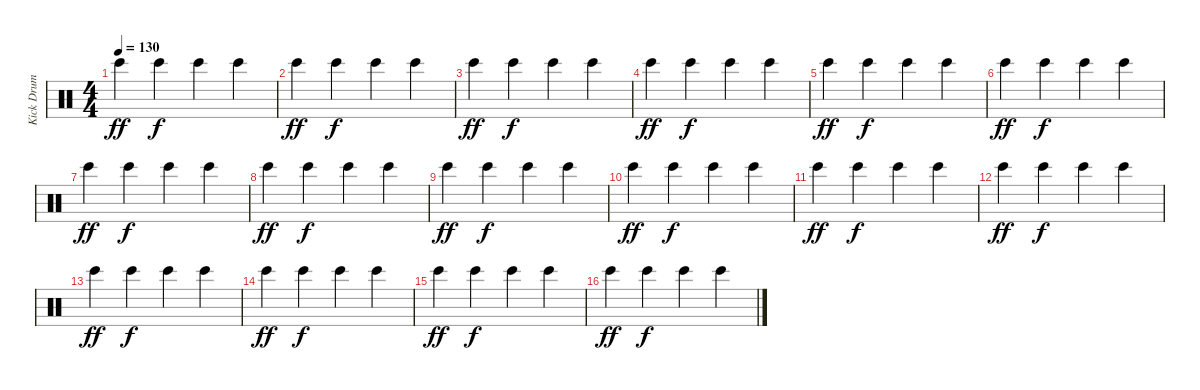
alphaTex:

\track ("Kick Drum" "Kick Drum") {instrument percussion}
\staff {score}
\articulation defaults
\ts (4 4)
\tempo 130
\clef neutral
\ks c "Bongo High (hit)".4{dy ff} "Bongo High (hit)".4{dy f} "Bongo High (hit)".4 "Bongo High (hit)".4
|
"Bongo High (hit)".4{dy ff} "Bongo High (hit)".4{dy f} "Bongo High (hit)".4 "Bongo High (hit)".4 |
"Bongo High (hit)".4{dy ff} "Bongo High (hit)".4{dy f} "Bongo High (hit)".4 "Bongo High (hit)".4 |
"Bongo High (hit)".4{dy ff} "Bongo High (hit)".4{dy f} "Bongo High (hit)".4 "Bongo High (hit)".4 |
"Bongo High (hit)".4{dy ff} "Bongo High (hit)".4{dy f} "Bongo High (hit)".4 "Bongo High (hit)".4 |
"Bongo High (hit)".4{dy ff} "Bongo High (hit)".4{dy f} "Bongo High (hit)".4 "Bongo High (hit)".4 |
"Bongo High (hit)".4{dy ff} "Bongo High (hit)".4{dy f} "Bongo High (hit)".4 "Bongo High (hit)".4 |
"Bongo High (hit)".4{dy ff} "Bongo High (hit)".4{dy f} "Bongo High (hit)".4 "Bongo High (hit)".4 |
"Bongo High (hit)".4{dy ff} "Bongo High (hit)".4{dy f} "Bongo High (hit)".4 "Bongo High (hit)".4 |
"Bongo High (hit)".4{dy ff} "Bongo High (hit)".4{dy f} "Bongo High (hit)".4 "Bongo High (hit)".4 |
"Bongo High (hit)".4{dy ff} "Bongo High (hit)".4{dy f} "Bongo High (hit)".4 "Bongo High (hit)".4 |
"Bongo High (hit)".4{dy ff} "Bongo High (hit)".4{dy f} "Bongo High (hit)".4 "Bongo High (hit)".4 |
"Bongo High (hit)".4{dy ff} "Bongo High (hit)".4{dy f} "Bongo High (hit)".4 "Bongo High (hit)".4 |
"Bongo High (hit)".4{dy ff} "Bongo High (hit)".4{dy f} "Bongo High (hit)".4 "Bongo High (hit)".4 |
"Bongo High (hit)".4{dy ff} "Bongo High (hit)".4{dy f} "Bongo High (hit)".4 "Bongo High (hit)".4 |
"Bongo High (hit)".4{dy ff} "Bongo High (hit)".4{dy f} "Bongo High (hit)".4 "Bongo High (hit)".4
